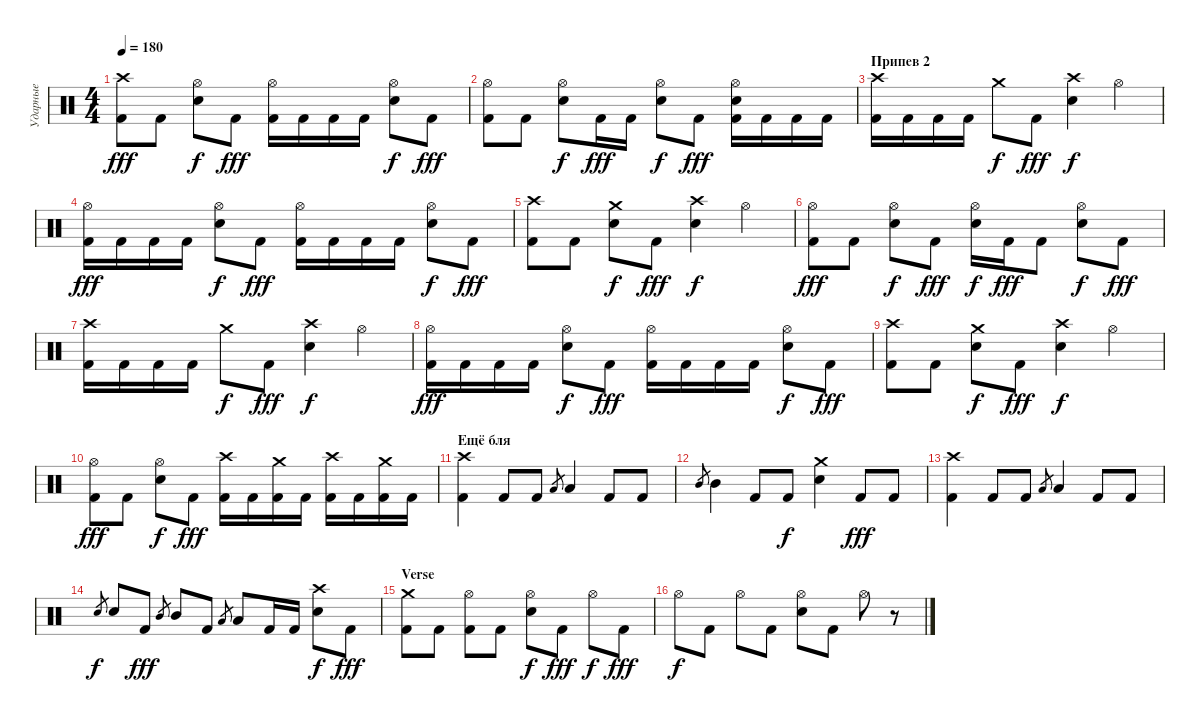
\track ("Ударные" "Ударные") {instrument percussion}
\staff {score}
\articulation defaults
\ts (4 4)
\tempo 180
\clef neutral
\ks c
("Kick (hit) 2" "Crash high (hit)").8{dy fff} "Kick (hit) 2".8 ("Snare (hit) 2" "Hi-Hat (open)").8{dy f} "Kick (hit) 2".8{dy fff} ("Kick (hit) 2" "Hi-Hat (open)").16 "Kick (hit) 2".16 "Kick (hit) 2".16 "Kick (hit) 2".16 ("Snare (hit) 2" "Hi-Hat (open)").8{dy f} "Kick (hit) 2".8{dy fff} |
("Kick (hit) 2" "Hi-Hat (open)").8 "Kick (hit) 2".8 ("Snare (hit) 2" "Hi-Hat (open)").8{dy f} "Kick (hit) 2".16{dy fff} "Kick (hit) 2".16 ("Snare (hit) 2" "Hi-Hat (open)").8{dy f} "Kick (hit) 2".8{dy fff} ("Kick (hit) 2" "Snare (hit) 2" "Hi-Hat (open)").16 "Kick (hit) 2".16 "Kick (hit) 2".16 "Kick (hit) 2".16 |
\section ("" "Припев 2")
("Kick (hit) 2" "Crash high (hit)").16 "Kick (hit) 2".16 "Kick (hit) 2".16 "Kick (hit) 2".16 "Crash medium (hit)".8{dy f} "Kick (hit) 2".8{dy fff} ("Snare (hit) 2" "Crash high (hit)").4{dy f} "Hi-Hat (open)".4 |
("Kick (hit) 2" "Hi-Hat (open)").16{dy fff} "Kick (hit) 2".16 "Kick (hit) 2".16 "Kick (hit) 2".16 ("Snare (hit) 2" "Hi-Hat (open)").8{dy f} "Kick (hit) 2".8{dy fff} ("Kick (hit) 2" "Hi-Hat (open)").16 "Kick (hit) 2".16 "Kick (hit) 2".16 "Kick (hit) 2".16 ("Snare (hit) 2" "Hi-Hat (open)").8{dy f} "Kick (hit) 2".8{dy fff} |
("Kick (hit) 2" "Crash high (hit)").8 "Kick (hit) 2".8 ("Snare (hit) 2" "Crash medium (hit)").8{dy f} "Kick (hit) 2".8{dy fff} ("Snare (hit) 2" "Crash high (hit)").4{dy f} "Hi-Hat (open)".4 |
("Kick (hit) 2" "Hi-Hat (open)").8{dy fff} "Kick (hit) 2".8 ("Snare (hit) 2" "Hi-Hat (open)").8{dy f} "Kick (hit) 2".8{dy fff} ("Snare (hit) 2" "Hi-Hat (open)").16{dy f} "Kick (hit) 2".16{dy fff} "Kick (hit) 2".8 ("Snare (hit) 2" "Hi-Hat (open)").8{dy f} "Kick (hit) 2".8{dy fff} |
("Kick (hit) 2" "Crash high (hit)").16 "Kick (hit) 2".16 "Kick (hit) 2".16 "Kick (hit) 2".16 "Crash medium (hit)".8{dy f} "Kick (hit) 2".8{dy fff} ("Snare (hit) 2" "Crash high (hit)").4{dy f} "Hi-Hat (open)".4 |
("Kick (hit) 2" "Hi-Hat (open)").16{dy fff} "Kick (hit) 2".16 "Kick (hit) 2".16 "Kick (hit) 2".16 ("Snare (hit) 2" "Hi-Hat (open)").8{dy f} "Kick (hit) 2".8{dy fff} ("Kick (hit) 2" "Hi-Hat (open)").16 "Kick (hit) 2".16 "Kick (hit) 2".16 "Kick (hit) 2".16 ("Snare (hit) 2" "Hi-Hat (open)").8{dy f} "Kick (hit) 2".8{dy fff} |
("Kick (hit) 2" "Crash high (hit)").8 "Kick (hit) 2".8 ("Snare (hit) 2" "Crash medium (hit)").8{dy f} "Kick (hit) 2".8{dy fff} ("Snare (hit) 2" "Crash high (hit)").4{dy f} "Hi-Hat (open)".4 |
("Kick (hit) 2" "Hi-Hat (open)").8{dy fff} "Kick (hit) 2".8 ("Snare (hit) 2" "Hi-Hat (open)").8{dy f} "Kick (hit) 2".8{dy fff} ("Kick (hit) 2" "Crash high (hit)").16 "Kick (hit) 2".16 ("Kick (hit) 2" "Crash medium (hit)").16 "Kick (hit) 2".16 ("Kick (hit) 2" "Crash high (hit)").16 "Kick (hit) 2".16 ("Kick (hit) 2" "Crash medium (hit)").16 "Kick (hit) 2".16 |
\section ("" "Ещё бля")
("Kick (hit) 2" "Crash high (hit)").4 "Kick (hit) 2".8 "Kick (hit) 2".8 "Low Tom (hit)".8{gr} "Low Tom (hit)".4 "Kick (hit) 2".8 "Kick (hit) 2".8 |
"Mid Tom (hit)".8{gr} "Mid Tom (hit)".4 "Kick (hit) 2".8 "Kick (hit) 2".8{dy f} ("Snare (hit) 2" "Crash medium (hit)").4 "Kick (hit) 2".8{dy fff} "Kick (hit) 2".8 |
("Kick (hit) 2" "Crash high (hit)").4 "Kick (hit) 2".8 "Kick (hit) 2".8 "Low Tom (hit)".8{gr} "Low Tom (hit)".4 "Kick (hit) 2".8 "Kick (hit) 2".8 |
"Snare (hit) 2".8{gr dy f} "Snare (hit) 2".8 "Kick (hit) 2".8{dy fff} "Mid Tom (hit)".8{gr} "Mid Tom (hit)".8 "Kick (hit) 2".8 "Low Tom (hit)".8{gr} "Low Tom (hit)".8 "Kick (hit) 2".16 "Kick (hit) 2".16 ("Snare (hit) 2" "Crash high (hit)").8{dy f} "Kick (hit) 2".8{dy fff} |
\section ("" "Verse")
("Kick (hit) 2" "Crash medium (hit)").8 "Kick (hit) 2".8 ("Kick (hit) 2" "Hi-Hat (open)").8 "Kick (hit) 2".8 ("Snare (hit) 2" "Hi-Hat (open)").8{dy f} "Kick (hit) 2".8{dy fff} "Hi-Hat (open)".8{dy f} "Kick (hit) 2".8{dy fff} |
"Hi-Hat (open)".8{dy f} "Kick (hit) 2".8 "Hi-Hat (open)".8 "Kick (hit) 2".8 ("Snare (hit) 2" "Hi-Hat (open)").8 "Kick (hit) 2".8 "Hi-Hat (open)".8 r.8
